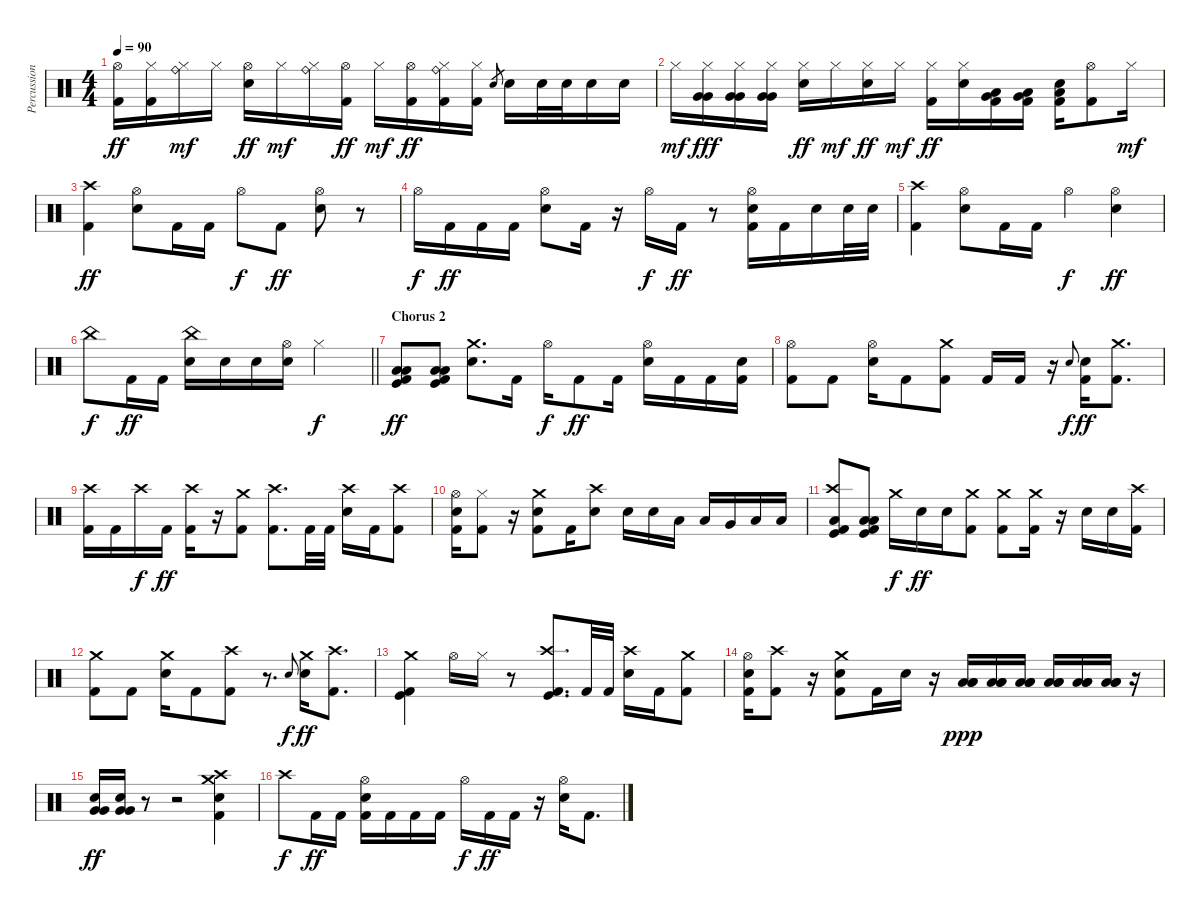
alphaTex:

\track ("Percussion" "Percussion") {instrument percussion}
\staff {score}
\articulation defaults
\ts (4 4)
\tempo 90
\clef neutral
\ks c
("Hi-Hat (open)" "Kick (hit) 2").16{dy ff} ("Hi-Hat (closed)" "Kick (hit) 2").16 ("Ride (bell)" "Hi-Hat (closed)").16{dy mf} "Hi-Hat (closed)".16 ("Hi-Hat (open)" "Electric Snare (hit)").16{dy ff} "Hi-Hat (closed)".16{dy mf} ("Ride (bell)" "Hi-Hat (closed)").16 ("Hi-Hat (open)" "Kick (hit) 2").16{dy ff} "Hi-Hat (closed)".16{dy mf} ("Hi-Hat (open)" "Kick (hit) 2").16{dy ff} ("Ride (bell)" "Hi-Hat (closed)" "Kick (hit) 2").16 ("Hi-Hat (closed)" "Kick (hit) 2").16 "Electric Snare (hit)".8{gr} "Electric Snare (hit)".16 "Electric Snare (hit)".32 "Electric Snare (hit)".32 "Electric Snare (hit)".16 "Electric Snare (hit)".16 |
"Hi-Hat (closed)".16{dy mf} ("Hi-Hat (closed)" "Very Low Tom (hit)" "Very Low Tom (hit)").16{dy fff} ("Hi-Hat (closed)" "Very Low Tom (hit)" "Very Low Tom (hit)").16 ("Hi-Hat (closed)" "Very Low Tom (hit)" "Very Low Tom (hit)").16 ("Hi-Hat (closed)" "Electric Snare (hit)").16{dy ff} "Hi-Hat (closed)".16{dy mf} ("Hi-Hat (closed)" "Electric Snare (hit)").16{dy ff} "Hi-Hat (closed)".16{dy mf} ("Hi-Hat (closed)" "Kick (hit) 2").16{dy ff} ("Hi-Hat (closed)" "Electric Snare (hit)").16 ("Very Low Tom (hit)" "Low Floor Tom (hit)" "Kick (hit) 2").16 ("Very Low Tom (hit)" "Low Floor Tom (hit)" "Kick (hit) 2").16 ("Electric Snare (hit)" "Low Floor Tom (hit)" "Kick (hit) 2").16 ("Hi-Hat (open)" "Kick (hit) 2").8 "Hi-Hat (closed)".16{dy mf} |
("Crash high (hit)" "Kick (hit) 2").4{dy ff} ("Hi-Hat (open)" "Electric Snare (hit)").8 "Kick (hit) 2".16 "Kick (hit) 2".16 "Hi-Hat (open)".8{dy f} "Kick (hit) 2".8{dy ff} ("Hi-Hat (open)" "Electric Snare (hit)").8 r.8 |
"Hi-Hat (open)".16{dy f} "Kick (hit) 2".16{dy ff} "Kick (hit) 2".16 "Kick (hit) 2".16 ("Hi-Hat (open)" "Electric Snare (hit)").8 "Kick (hit) 2".16 r.16 "Hi-Hat (open)".16{dy f} "Kick (hit) 2".16{dy ff} r.8 ("Hi-Hat (open)" "Electric Snare (hit)" "Kick (hit) 2").16 "Kick (hit) 2".16 "Electric Snare (hit)".16 "Electric Snare (hit)".32 "Electric Snare (hit)".32 |
("Crash high (hit)" "Kick (hit) 2").4 ("Hi-Hat (open)" "Electric Snare (hit)").8 "Kick (hit) 2".16 "Kick (hit) 2".16 "Hi-Hat (open)".4{dy f} ("Hi-Hat (open)" "Electric Snare (hit)").4{dy ff} |
\barLineRight lightlight "China (hit)".8{dy f} "Kick (hit) 2".16{dy ff} "Kick (hit) 2".16
("China (hit)" "Electric Snare (hit)").16 "Electric Snare (hit)".16 "Electric Snare (hit)".16 ("Hi-Hat (open)" "Electric Snare (hit)").16 "Hi-Hat (closed)".2{dy f} |
\section ("" "Chorus 2")
("Low Tom (hit)" "Low Floor Tom (hit)" "Kick (hit)" "Kick (hit) 2").8{dy ff} ("Low Tom (hit)" "Low Floor Tom (hit)" "Kick (hit)" "Kick (hit) 2").8 ("Crash medium (hit)" "Electric Snare (hit)").8{d} "Kick (hit) 2".16 "Hi-Hat (open)".16{dy f} "Kick (hit) 2".8{dy ff} "Kick (hit) 2".16 ("Hi-Hat (open)" "Electric Snare (hit)").16 "Kick (hit) 2".16 "Kick (hit) 2".16 ("Electric Snare (hit)" "Kick (hit) 2").16 |
("Hi-Hat (open)" "Kick (hit) 2").8 "Kick (hit) 2".8 ("Hi-Hat (open)" "Electric Snare (hit)").16 "Kick (hit) 2".8 ("Crash medium (hit)" "Kick (hit) 2").8 "Kick (hit) 2".16 "Kick (hit) 2".16 r.16 "Electric Snare (hit)".8{gr onbeat dy f} ("Electric Snare (hit)" "Kick (hit) 2").16{dy ff} ("Crash medium (hit)" "Kick (hit) 2").8{d} |
("Crash high (hit)" "Kick (hit) 2").16 "Kick (hit) 2".16 "Crash high (hit)".16{dy f} "Kick (hit) 2".16{dy ff} ("Crash high (hit)" "Kick (hit) 2").16 r.16 ("Crash medium (hit)" "Kick (hit) 2").8 ("Crash high (hit)" "Kick (hit) 2").8{d} "Kick (hit) 2".32 "Kick (hit) 2".32 ("Crash high (hit)" "Electric Snare (hit)").16 "Kick (hit) 2".16 ("Crash high (hit)" "Kick (hit) 2").8 |
("Hi-Hat (open)" "Electric Snare (hit)" "Kick (hit) 2").16 ("Hi-Hat (closed)" "Kick (hit) 2").8 r.16 ("Crash medium (hit)" "Electric Snare (hit)" "Kick (hit) 2").8 "Kick (hit) 2".16 ("Crash high (hit)" "Electric Snare (hit)").8 "Electric Snare (hit)".16 "Electric Snare (hit)".16 "Low Tom (hit)".16 "Low Tom (hit)".16 "Very Low Tom (hit)".16 "Low Floor Tom (hit)".16 "Low Tom (hit)".16 |
("Crash high (hit)" "Low Floor Tom (hit)" "Kick (hit)" "Kick (hit) 2").8 ("Low Tom (hit)" "Low Floor Tom (hit)" "Kick (hit)" "Kick (hit) 2").8 "Crash medium (hit)".16{dy f} "Electric Snare (hit)".16{dy ff} "Electric Snare (hit)".16 ("Crash medium (hit)" "Kick (hit) 2").8 ("Crash medium (hit)" "Kick (hit) 2").8 ("Crash medium (hit)" "Kick (hit) 2").16 r.16 "Electric Snare (hit)".16 "Electric Snare (hit)".16 ("Crash high (hit)" "Kick (hit) 2").16 |
("Crash medium (hit)" "Kick (hit) 2").8 "Kick (hit) 2".8 ("Crash medium (hit)" "Electric Snare (hit)").16 "Kick (hit) 2".8 ("Crash high (hit)" "Kick (hit) 2").8 r.8{d} "Electric Snare (hit)".8{gr onbeat dy f} ("Crash medium (hit)" "Electric Snare (hit)").16{dy ff} ("Crash high (hit)" "Kick (hit) 2").8{d} |
("Crash medium (hit)" "Kick (hit)" "Kick (hit) 2").4 "Hi-Hat (open)".16 "Hi-Hat (closed)".16 r.8 ("Crash high (hit)" "Kick (hit)" "Kick (hit) 2").8{d} "Kick (hit) 2".32 "Kick (hit) 2".32 ("Crash high (hit)" "Electric Snare (hit)").16 "Kick (hit) 2".16 ("Crash medium (hit)" "Kick (hit) 2").8 |
("Hi-Hat (open)" "Electric Snare (hit)" "Kick (hit) 2").16 ("Crash high (hit)" "Kick (hit) 2").8 r.16 ("Crash medium (hit)" "Electric Snare (hit)" "Kick (hit) 2").8 "Kick (hit) 2".16 "Electric Snare (hit)".16 r.16 ("Low Tom (hit)" "Low Floor Tom (hit)" "Low Floor Tom (hit)").16{dy ppp} ("Low Tom (hit)" "Low Floor Tom (hit)" "Low Floor Tom (hit)").16 ("Low Tom (hit)" "Low Floor Tom (hit)" "Low Floor Tom (hit)").16 ("Low Tom (hit)" "Low Floor Tom (hit)" "Low Floor Tom (hit)").16 ("Low Tom (hit)" "Low Floor Tom (hit)" "Low Floor Tom (hit)").16 ("Low Tom (hit)" "Low Floor Tom (hit)" "Low Floor Tom (hit)").16 r.16 |
("Very Low Tom (hit)" "Very Low Tom (hit)" "Electric Snare (hit)").16{dy ff} ("Very Low Tom (hit)" "Very Low Tom (hit)" "Electric Snare (hit)").16 r.8 r.2 ("Crash medium (hit)" "Crash high (hit)" "Electric Snare (hit)" "Kick (hit) 2").4 |
"Crash high (hit)".8{dy f} "Kick (hit) 2".16{dy ff} "Kick (hit) 2".16 ("Hi-Hat (open)" "Electric Snare (hit)" "Kick (hit) 2").16 "Kick (hit) 2".16 "Kick (hit) 2".16 "Kick (hit) 2".16 "Hi-Hat (open)".16{dy f} "Kick (hit) 2".16{dy ff} "Kick (hit) 2".16 r.16 ("Hi-Hat (open)" "Electric Snare (hit)").16 "Kick (hit) 2".8{d}
